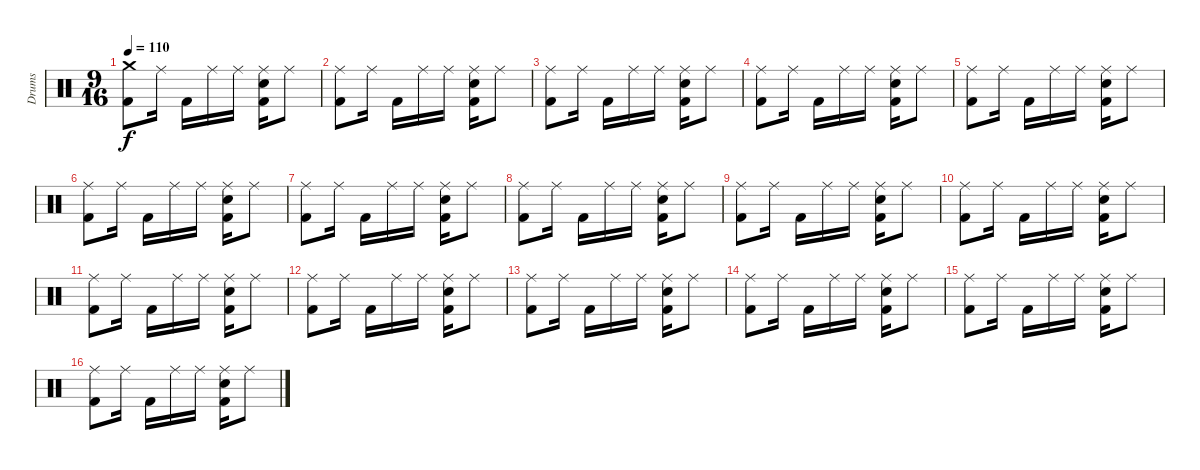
\track ("Drums" "Drums") {instrument percussion}
\staff {score}
\articulation defaults
\ts (9 16)
\tempo 110
\clef neutral
\ks c
("Kick (hit) 2" "Crash medium (hit)").8{dy f} "Ride (middle)".16 "Kick (hit) 2".16 "Ride (middle)".16 "Ride (middle)".16 ("Kick (hit) 2" "Ride (middle)" "Electric Snare (hit)").16 "Ride (middle)".8 |
("Kick (hit) 2" "Ride (middle)").8 "Ride (middle)".16 "Kick (hit) 2".16 "Ride (middle)".16 "Ride (middle)".16 ("Kick (hit) 2" "Ride (middle)" "Electric Snare (hit)").16 "Ride (middle)".8 |
("Kick (hit) 2" "Ride (middle)").8 "Ride (middle)".16 "Kick (hit) 2".16 "Ride (middle)".16 "Ride (middle)".16 ("Kick (hit) 2" "Ride (middle)" "Electric Snare (hit)").16 "Ride (middle)".8 |
("Kick (hit) 2" "Ride (middle)").8 "Ride (middle)".16 "Kick (hit) 2".16 "Ride (middle)".16 "Ride (middle)".16 ("Kick (hit) 2" "Ride (middle)" "Electric Snare (hit)").16 "Ride (middle)".8 |
("Kick (hit) 2" "Ride (middle)").8 "Ride (middle)".16 "Kick (hit) 2".16 "Ride (middle)".16 "Ride (middle)".16 ("Kick (hit) 2" "Ride (middle)" "Electric Snare (hit)").16 "Ride (middle)".8 |
("Kick (hit) 2" "Ride (middle)").8 "Ride (middle)".16 "Kick (hit) 2".16 "Ride (middle)".16 "Ride (middle)".16 ("Kick (hit) 2" "Ride (middle)" "Electric Snare (hit)").16 "Ride (middle)".8 |
("Kick (hit) 2" "Ride (middle)").8 "Ride (middle)".16 "Kick (hit) 2".16 "Ride (middle)".16 "Ride (middle)".16 ("Kick (hit) 2" "Ride (middle)" "Electric Snare (hit)").16 "Ride (middle)".8 |
("Kick (hit) 2" "Ride (middle)").8 "Ride (middle)".16 "Kick (hit) 2".16 "Ride (middle)".16 "Ride (middle)".16 ("Kick (hit) 2" "Ride (middle)" "Electric Snare (hit)").16 "Ride (middle)".8 |
("Kick (hit) 2" "Ride (middle)").8 "Ride (middle)".16 "Kick (hit) 2".16 "Ride (middle)".16 "Ride (middle)".16 ("Kick (hit) 2" "Ride (middle)" "Electric Snare (hit)").16 "Ride (middle)".8 |
("Kick (hit) 2" "Ride (middle)").8 "Ride (middle)".16 "Kick (hit) 2".16 "Ride (middle)".16 "Ride (middle)".16 ("Kick (hit) 2" "Ride (middle)" "Electric Snare (hit)").16 "Ride (middle)".8 |
("Kick (hit) 2" "Ride (middle)").8 "Ride (middle)".16 "Kick (hit) 2".16 "Ride (middle)".16 "Ride (middle)".16 ("Kick (hit) 2" "Ride (middle)" "Electric Snare (hit)").16 "Ride (middle)".8 |
("Kick (hit) 2" "Ride (middle)").8 "Ride (middle)".16 "Kick (hit) 2".16 "Ride (middle)".16 "Ride (middle)".16 ("Kick (hit) 2" "Ride (middle)" "Electric Snare (hit)").16 "Ride (middle)".8 |
("Kick (hit) 2" "Ride (middle)").8 "Ride (middle)".16 "Kick (hit) 2".16 "Ride (middle)".16 "Ride (middle)".16 ("Kick (hit) 2" "Ride (middle)" "Electric Snare (hit)").16 "Ride (middle)".8 |
("Kick (hit) 2" "Ride (middle)").8 "Ride (middle)".16 "Kick (hit) 2".16 "Ride (middle)".16 "Ride (middle)".16 ("Kick (hit) 2" "Ride (middle)" "Electric Snare (hit)").16 "Ride (middle)".8 |
("Kick (hit) 2" "Ride (middle)").8 "Ride (middle)".16 "Kick (hit) 2".16 "Ride (middle)".16 "Ride (middle)".16 ("Kick (hit) 2" "Ride (middle)" "Electric Snare (hit)").16 "Ride (middle)".8 |
("Kick (hit) 2" "Ride (middle)").8 "Ride (middle)".16 "Kick (hit) 2".16 "Ride (middle)".16 "Ride (middle)".16 ("Kick (hit) 2" "Ride (middle)" "Electric Snare (hit)").16 "Ride (middle)".8
